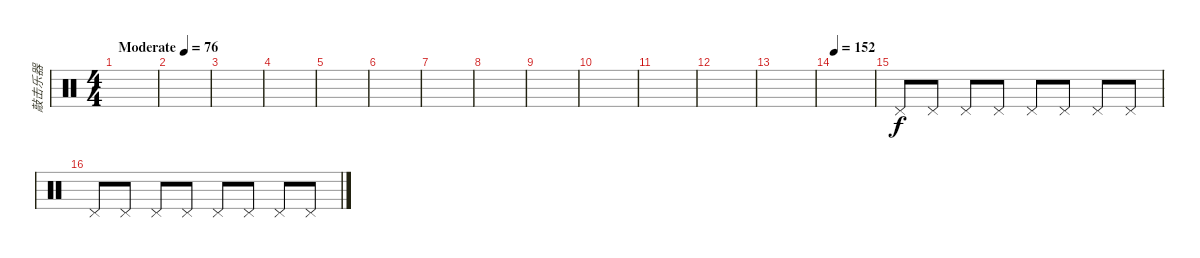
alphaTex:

\track ("敲击乐器" "敲击乐器") {instrument percussion}
\staff {score}
\articulation defaults
\ts (4 4)
\tempo (76 "Moderate")
\clef neutral
\ks c
|
|
|
|
|
|
|
|
|
|
|
|
|
\tempo 152
|
"Pedal Hi-Hat (hit)".8 "Pedal Hi-Hat (hit)".8 "Pedal Hi-Hat (hit)".8 "Pedal Hi-Hat (hit)".8 "Pedal Hi-Hat (hit)".8 "Pedal Hi-Hat (hit)".8 "Pedal Hi-Hat (hit)".8 "Pedal Hi-Hat (hit)".8 |
"Pedal Hi-Hat (hit)".8 "Pedal Hi-Hat (hit)".8 "Pedal Hi-Hat (hit)".8 "Pedal Hi-Hat (hit)".8 "Pedal Hi-Hat (hit)".8 "Pedal Hi-Hat (hit)".8 "Pedal Hi-Hat (hit)".8 "Pedal Hi-Hat (hit)".8
